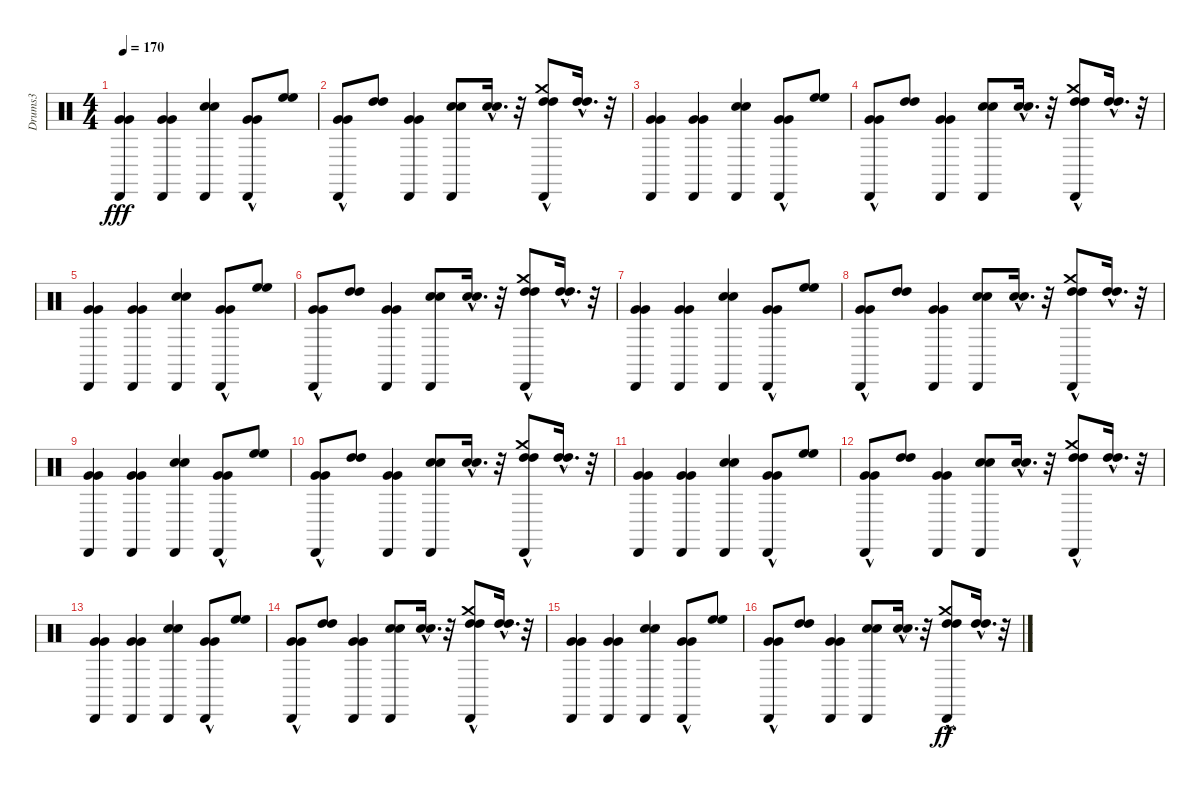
\track ("Drums3" "Drums3") {instrument percussion}
\staff {score}
\articulation defaults
\ts (4 4)
\tempo 170
\clef neutral
\ks c
("Very Low Tom (hit)" "Very Low Tom (hit)" "Cabasa (hit)").4{dy fff} ("Very Low Tom (hit)" "Very Low Tom (hit)" "Cabasa (hit)").4 ("Electric Snare (hit)" "Electric Snare (hit)" "Cabasa (hit)").4 ("Very Low Tom (hit)"{hac} "Very Low Tom (hit)"{hac} "Cabasa (hit)").8 ("High Floor Tom (hit)" "High Floor Tom (hit)").8 |
("Very Low Tom (hit)"{hac} "Very Low Tom (hit)"{hac} "Cabasa (hit)").8 ("High Tom (hit)" "High Tom (hit)").8 ("Very Low Tom (hit)" "Very Low Tom (hit)" "Cabasa (hit)").4 ("Electric Snare (hit)" "Electric Snare (hit)" "Cabasa (hit)").8 ("Electric Snare (hit)"{hac} "Electric Snare (hit)"{hac}).16{d} r.32 ("High Tom (hit)"{hac} "High Tom (hit)"{hac} "Crash medium (hit)" "Cabasa (hit)").8 ("High Tom (hit)"{hac} "High Tom (hit)"{hac}).16{d} r.32 |
("Very Low Tom (hit)" "Very Low Tom (hit)" "Cabasa (hit)").4 ("Very Low Tom (hit)" "Very Low Tom (hit)" "Cabasa (hit)").4 ("Electric Snare (hit)" "Electric Snare (hit)" "Cabasa (hit)").4 ("Very Low Tom (hit)"{hac} "Very Low Tom (hit)"{hac} "Cabasa (hit)").8 ("High Floor Tom (hit)" "High Floor Tom (hit)").8 |
("Very Low Tom (hit)"{hac} "Very Low Tom (hit)"{hac} "Cabasa (hit)").8 ("High Tom (hit)" "High Tom (hit)").8 ("Very Low Tom (hit)" "Very Low Tom (hit)" "Cabasa (hit)").4 ("Electric Snare (hit)" "Electric Snare (hit)" "Cabasa (hit)").8 ("Electric Snare (hit)"{hac} "Electric Snare (hit)"{hac}).16{d} r.32 ("High Tom (hit)"{hac} "High Tom (hit)"{hac} "Crash medium (hit)" "Cabasa (hit)").8 ("High Tom (hit)"{hac} "High Tom (hit)"{hac}).16{d} r.32 |
("Very Low Tom (hit)" "Very Low Tom (hit)" "Cabasa (hit)").4 ("Very Low Tom (hit)" "Very Low Tom (hit)" "Cabasa (hit)").4 ("Electric Snare (hit)" "Electric Snare (hit)" "Cabasa (hit)").4 ("Very Low Tom (hit)"{hac} "Very Low Tom (hit)"{hac} "Cabasa (hit)").8 ("High Floor Tom (hit)" "High Floor Tom (hit)").8 |
("Very Low Tom (hit)"{hac} "Very Low Tom (hit)"{hac} "Cabasa (hit)").8 ("High Tom (hit)" "High Tom (hit)").8 ("Very Low Tom (hit)" "Very Low Tom (hit)" "Cabasa (hit)").4 ("Electric Snare (hit)" "Electric Snare (hit)" "Cabasa (hit)").8 ("Electric Snare (hit)"{hac} "Electric Snare (hit)"{hac}).16{d} r.32 ("High Tom (hit)"{hac} "High Tom (hit)"{hac} "Crash medium (hit)" "Cabasa (hit)").8 ("High Tom (hit)"{hac} "High Tom (hit)"{hac}).16{d} r.32 |
("Very Low Tom (hit)" "Very Low Tom (hit)" "Cabasa (hit)").4 ("Very Low Tom (hit)" "Very Low Tom (hit)" "Cabasa (hit)").4 ("Electric Snare (hit)" "Electric Snare (hit)" "Cabasa (hit)").4 ("Very Low Tom (hit)"{hac} "Very Low Tom (hit)"{hac} "Cabasa (hit)").8 ("High Floor Tom (hit)" "High Floor Tom (hit)").8 |
("Very Low Tom (hit)"{hac} "Very Low Tom (hit)"{hac} "Cabasa (hit)").8 ("High Tom (hit)" "High Tom (hit)").8 ("Very Low Tom (hit)" "Very Low Tom (hit)" "Cabasa (hit)").4 ("Electric Snare (hit)" "Electric Snare (hit)" "Cabasa (hit)").8 ("Electric Snare (hit)"{hac} "Electric Snare (hit)"{hac}).16{d} r.32 ("High Tom (hit)"{hac} "High Tom (hit)"{hac} "Crash medium (hit)" "Cabasa (hit)").8 ("High Tom (hit)"{hac} "High Tom (hit)"{hac}).16{d} r.32 |
("Very Low Tom (hit)" "Very Low Tom (hit)" "Cabasa (hit)").4 ("Very Low Tom (hit)" "Very Low Tom (hit)" "Cabasa (hit)").4 ("Electric Snare (hit)" "Electric Snare (hit)" "Cabasa (hit)").4 ("Very Low Tom (hit)"{hac} "Very Low Tom (hit)"{hac} "Cabasa (hit)").8 ("High Floor Tom (hit)" "High Floor Tom (hit)").8 |
("Very Low Tom (hit)"{hac} "Very Low Tom (hit)"{hac} "Cabasa (hit)").8 ("High Tom (hit)" "High Tom (hit)").8 ("Very Low Tom (hit)" "Very Low Tom (hit)" "Cabasa (hit)").4 ("Electric Snare (hit)" "Electric Snare (hit)" "Cabasa (hit)").8 ("Electric Snare (hit)"{hac} "Electric Snare (hit)"{hac}).16{d} r.32 ("High Tom (hit)"{hac} "High Tom (hit)"{hac} "Crash medium (hit)" "Cabasa (hit)").8 ("High Tom (hit)"{hac} "High Tom (hit)"{hac}).16{d} r.32 |
("Very Low Tom (hit)" "Very Low Tom (hit)" "Cabasa (hit)").4 ("Very Low Tom (hit)" "Very Low Tom (hit)" "Cabasa (hit)").4 ("Electric Snare (hit)" "Electric Snare (hit)" "Cabasa (hit)").4 ("Very Low Tom (hit)"{hac} "Very Low Tom (hit)"{hac} "Cabasa (hit)").8 ("High Floor Tom (hit)" "High Floor Tom (hit)").8 |
("Very Low Tom (hit)"{hac} "Very Low Tom (hit)"{hac} "Cabasa (hit)").8 ("High Tom (hit)" "High Tom (hit)").8 ("Very Low Tom (hit)" "Very Low Tom (hit)" "Cabasa (hit)").4 ("Electric Snare (hit)" "Electric Snare (hit)" "Cabasa (hit)").8 ("Electric Snare (hit)"{hac} "Electric Snare (hit)"{hac}).16{d} r.32 ("High Tom (hit)"{hac} "High Tom (hit)"{hac} "Crash medium (hit)" "Cabasa (hit)").8 ("High Tom (hit)"{hac} "High Tom (hit)"{hac}).16{d} r.32 |
("Very Low Tom (hit)" "Very Low Tom (hit)" "Cabasa (hit)").4 ("Very Low Tom (hit)" "Very Low Tom (hit)" "Cabasa (hit)").4 ("Electric Snare (hit)" "Electric Snare (hit)" "Cabasa (hit)").4 ("Very Low Tom (hit)"{hac} "Very Low Tom (hit)"{hac} "Cabasa (hit)").8 ("High Floor Tom (hit)" "High Floor Tom (hit)").8 |
("Very Low Tom (hit)"{hac} "Very Low Tom (hit)"{hac} "Cabasa (hit)").8 ("High Tom (hit)" "High Tom (hit)").8 ("Very Low Tom (hit)" "Very Low Tom (hit)" "Cabasa (hit)").4 ("Electric Snare (hit)" "Electric Snare (hit)" "Cabasa (hit)").8 ("Electric Snare (hit)"{hac} "Electric Snare (hit)"{hac}).16{d} r.32 ("High Tom (hit)"{hac} "High Tom (hit)"{hac} "Crash medium (hit)" "Cabasa (hit)").8 ("High Tom (hit)"{hac} "High Tom (hit)"{hac}).16{d} r.32 |
("Very Low Tom (hit)" "Very Low Tom (hit)" "Cabasa (hit)").4 ("Very Low Tom (hit)" "Very Low Tom (hit)" "Cabasa (hit)").4 ("Electric Snare (hit)" "Electric Snare (hit)" "Cabasa (hit)").4 ("Very Low Tom (hit)"{hac} "Very Low Tom (hit)"{hac} "Cabasa (hit)").8 ("High Floor Tom (hit)" "High Floor Tom (hit)").8 |
("Very Low Tom (hit)"{hac} "Very Low Tom (hit)"{hac} "Cabasa (hit)").8 ("High Tom (hit)" "High Tom (hit)").8 ("Very Low Tom (hit)" "Very Low Tom (hit)" "Cabasa (hit)").4 ("Electric Snare (hit)" "Electric Snare (hit)" "Cabasa (hit)").8 ("Electric Snare (hit)"{hac} "Electric Snare (hit)"{hac}).16{d} r.32 ("High Tom (hit)"{hac} "High Tom (hit)"{hac} "Crash medium (hit)" "Cabasa (hit)").8{dy ff} ("High Tom (hit)"{hac} "High Tom (hit)"{hac}).16{d} r.32
